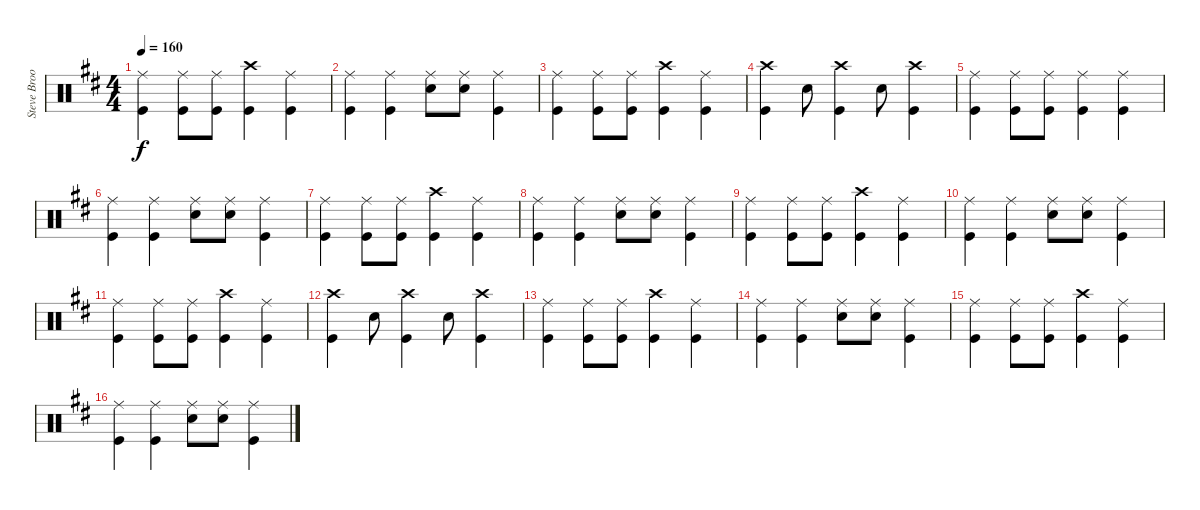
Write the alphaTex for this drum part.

\track ("Steve Brookins Drums" "Steve Broo") {instrument percussion}
\staff {score}
\articulation defaults
\ts (4 4)
\tempo 160
\clef neutral
\ks d
("Ride (middle)" "Kick (hit)").4{dy f} ("Ride (middle)" "Kick (hit)").8 ("Ride (middle)" "Kick (hit)").8 ("Crash high (hit)" "Kick (hit)").4 ("Ride (middle)" "Kick (hit)").4 |
("Ride (middle)" "Kick (hit)").4 ("Ride (middle)" "Kick (hit)").4 ("Ride (middle)" "Snare (hit) 2").8 ("Ride (middle)" "Snare (hit) 2").8 ("Ride (middle)" "Kick (hit)").4 |
("Ride (middle)" "Kick (hit)").4 ("Ride (middle)" "Kick (hit)").8 ("Ride (middle)" "Kick (hit)").8 ("Crash high (hit)" "Kick (hit)").4 ("Ride (middle)" "Kick (hit)").4 |
("Crash high (hit)" "Kick (hit)").4 "Snare (hit) 2".8 ("Crash high (hit)" "Kick (hit)").4 "Snare (hit) 2".8 ("Crash high (hit)" "Kick (hit)").4 |
("Ride (middle)" "Kick (hit)").4 ("Ride (middle)" "Kick (hit)").8 ("Ride (middle)" "Kick (hit)").8 ("Ride (middle)" "Kick (hit)").4 ("Ride (middle)" "Kick (hit)").4 |
("Ride (middle)" "Kick (hit)").4 ("Ride (middle)" "Kick (hit)").4 ("Ride (middle)" "Snare (hit) 2").8 ("Ride (middle)" "Snare (hit) 2").8 ("Ride (middle)" "Kick (hit)").4 |
("Ride (middle)" "Kick (hit)").4 ("Ride (middle)" "Kick (hit)").8 ("Ride (middle)" "Kick (hit)").8 ("Crash high (hit)" "Kick (hit)").4 ("Ride (middle)" "Kick (hit)").4 |
("Ride (middle)" "Kick (hit)").4 ("Ride (middle)" "Kick (hit)").4 ("Ride (middle)" "Snare (hit) 2").8 ("Ride (middle)" "Snare (hit) 2").8 ("Ride (middle)" "Kick (hit)").4 |
("Ride (middle)" "Kick (hit)").4 ("Ride (middle)" "Kick (hit)").8 ("Ride (middle)" "Kick (hit)").8 ("Crash high (hit)" "Kick (hit)").4 ("Ride (middle)" "Kick (hit)").4 |
("Ride (middle)" "Kick (hit)").4 ("Ride (middle)" "Kick (hit)").4 ("Ride (middle)" "Snare (hit) 2").8 ("Ride (middle)" "Snare (hit) 2").8 ("Ride (middle)" "Kick (hit)").4 |
("Ride (middle)" "Kick (hit)").4 ("Ride (middle)" "Kick (hit)").8 ("Ride (middle)" "Kick (hit)").8 ("Crash high (hit)" "Kick (hit)").4 ("Ride (middle)" "Kick (hit)").4 |
("Crash high (hit)" "Kick (hit)").4 "Snare (hit) 2".8 ("Crash high (hit)" "Kick (hit)").4 "Snare (hit) 2".8 ("Crash high (hit)" "Kick (hit)").4 |
("Ride (middle)" "Kick (hit)").4 ("Ride (middle)" "Kick (hit)").8 ("Ride (middle)" "Kick (hit)").8 ("Crash high (hit)" "Kick (hit)").4 ("Ride (middle)" "Kick (hit)").4 |
("Ride (middle)" "Kick (hit)").4 ("Ride (middle)" "Kick (hit)").4 ("Ride (middle)" "Snare (hit) 2").8 ("Ride (middle)" "Snare (hit) 2").8 ("Ride (middle)" "Kick (hit)").4 |
("Ride (middle)" "Kick (hit)").4 ("Ride (middle)" "Kick (hit)").8 ("Ride (middle)" "Kick (hit)").8 ("Crash high (hit)" "Kick (hit)").4 ("Ride (middle)" "Kick (hit)").4 |
("Ride (middle)" "Kick (hit)").4 ("Ride (middle)" "Kick (hit)").4 ("Ride (middle)" "Snare (hit) 2").8 ("Ride (middle)" "Snare (hit) 2").8 ("Ride (middle)" "Kick (hit)").4
